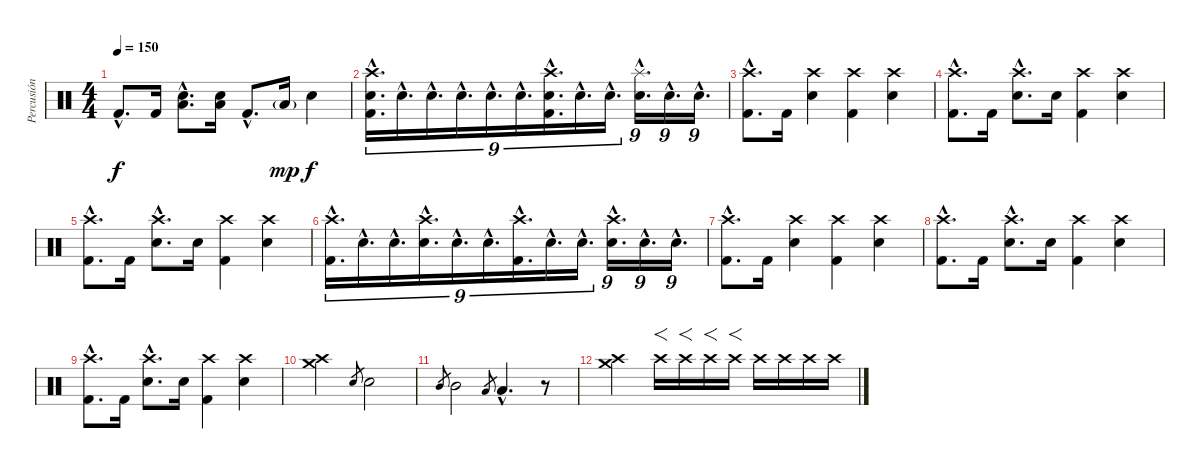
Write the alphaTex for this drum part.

\track ("Percusión" "Percusión") {instrument percussion}
\staff {score}
\articulation defaults
\ts (4 4)
\tempo 150
\clef neutral
\ks c "Kick (hit) 2"{hac}.8{d dy f} "Kick (hit) 2".16
("Low Tom (hit)"{hac} "Electric Snare (hit)"{hac}).8{d} ("Low Tom (hit)" "Electric Snare (hit)").16 "Kick (hit) 2"{hac}.8{d} "Low Tom (hit)"{g}.16{dy mp} "Electric Snare (hit)".4{dy f} |
("Crash high (hit)"{hac} "Electric Snare (hit)"{hac} "Kick (hit) 2"{hac}).16{d tu (9 8)} "Electric Snare (hit)"{hac}.16{d tu (9 8)} "Electric Snare (hit)"{hac}.16{d tu (9 8)} "Electric Snare (hit)"{hac}.16{d tu (9 8)} "Electric Snare (hit)"{hac}.16{d tu (9 8)} "Electric Snare (hit)"{hac}.16{d tu (9 8)} ("Crash high (hit)"{hac} "Electric Snare (hit)"{hac} "Kick (hit) 2"{hac}).16{d tu (9 8)} "Electric Snare (hit)"{hac}.16{d tu (9 8)} "Electric Snare (hit)"{hac}.16{d tu (9 8)} ("Splash (hit)"{hac} "Electric Snare (hit)"{hac}).16{d tu (9 8)} "Electric Snare (hit)"{hac}.16{d tu (9 8)} "Electric Snare (hit)"{hac}.16{d tu (9 8)} |
("Crash high (hit)"{hac} "Kick (hit) 2"{hac}).8{d} "Kick (hit) 2".16 ("Crash high (hit)" "Electric Snare (hit)").4 ("Crash high (hit)" "Kick (hit) 2").4 ("Crash high (hit)" "Electric Snare (hit)").4 |
("Crash high (hit)"{hac} "Kick (hit) 2"{hac}).8{d} "Kick (hit) 2".16 ("Crash high (hit)"{hac} "Electric Snare (hit)"{hac}).8{d} "Electric Snare (hit)".16 ("Crash high (hit)" "Kick (hit) 2").4 ("Crash high (hit)" "Electric Snare (hit)").4 |
("Crash high (hit)"{hac} "Kick (hit) 2"{hac}).8{d} "Kick (hit) 2".16 ("Crash high (hit)"{hac} "Electric Snare (hit)"{hac}).8{d} "Electric Snare (hit)".16 ("Crash high (hit)" "Kick (hit) 2").4 ("Crash high (hit)" "Electric Snare (hit)").4 |
("Crash high (hit)"{hac} "Kick (hit) 2"{hac}).16{d tu (9 8)} "Electric Snare (hit)"{hac}.16{d tu (9 8)} "Electric Snare (hit)"{hac}.16{d tu (9 8)} ("Crash high (hit)"{hac} "Electric Snare (hit)"{hac}).16{d tu (9 8)} "Electric Snare (hit)"{hac}.16{d tu (9 8)} "Electric Snare (hit)"{hac}.16{d tu (9 8)} ("Crash high (hit)"{hac} "Kick (hit) 2"{hac}).16{d tu (9 8)} "Electric Snare (hit)"{hac}.16{d tu (9 8)} "Electric Snare (hit)"{hac}.16{d tu (9 8)} ("Crash high (hit)"{hac} "Electric Snare (hit)"{hac}).16{d tu (9 8)} "Electric Snare (hit)"{hac}.16{d tu (9 8)} "Electric Snare (hit)"{hac}.16{d tu (9 8)} |
("Crash high (hit)"{hac} "Kick (hit) 2"{hac}).8{d} "Kick (hit) 2".16 ("Crash high (hit)" "Electric Snare (hit)").4 ("Crash high (hit)" "Kick (hit) 2").4 ("Crash high (hit)" "Electric Snare (hit)").4 |
("Crash high (hit)"{hac} "Kick (hit) 2"{hac}).8{d} "Kick (hit) 2".16 ("Crash high (hit)"{hac} "Electric Snare (hit)"{hac}).8{d} "Electric Snare (hit)".16 ("Crash high (hit)" "Kick (hit) 2").4 ("Crash high (hit)" "Electric Snare (hit)").4 |
("Crash high (hit)"{hac} "Kick (hit) 2"{hac}).8{d} "Kick (hit) 2".16 ("Crash high (hit)"{hac} "Electric Snare (hit)"{hac}).8{d} "Electric Snare (hit)".16 ("Crash high (hit)" "Kick (hit) 2").4 ("Crash high (hit)" "Electric Snare (hit)").4 |
("Crash high (hit)" "Crash medium (hit)").2 "Electric Snare (hit)".8{gr} "Electric Snare (hit)".2 |
"Mid Tom (hit)".8{gr} "Mid Tom (hit)".2 "Low Tom (hit)".8{gr} "Low Tom (hit)"{hac}.4{d} r.8 |
("Crash high (hit)" "Crash medium (hit)").2 "Crash high (hit)".16{f} "Crash high (hit)".16{f} "Crash high (hit)".16{f} "Crash high (hit)".16{f} "Crash high (hit)".16 "Crash high (hit)".16 "Crash high (hit)".16 "Crash high (hit)".16
